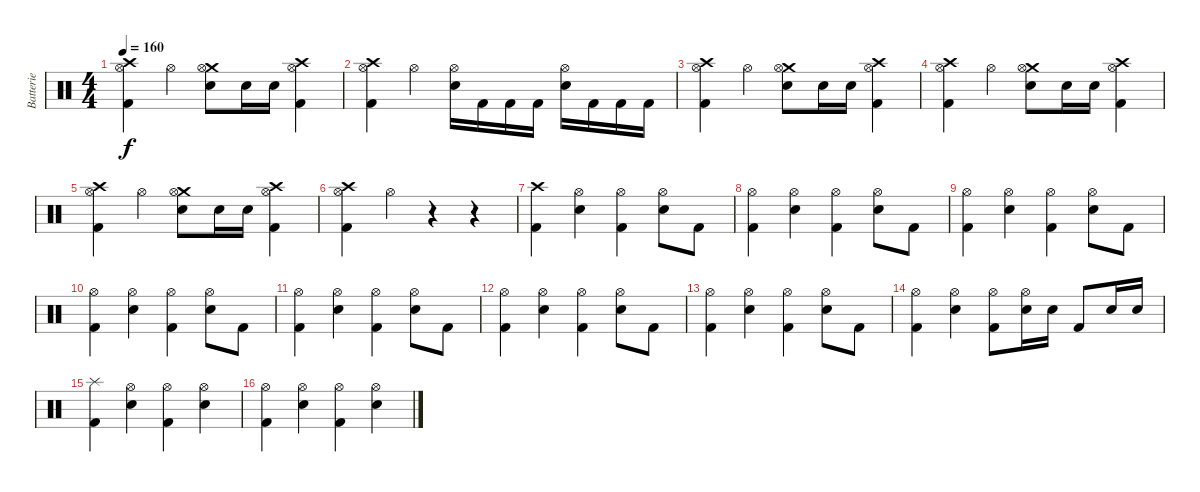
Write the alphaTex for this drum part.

\track ("Batterie" "Batterie") {instrument percussion}
\staff {score}
\articulation defaults
\ts (4 4)
\tempo 160
\clef neutral
\ks c
("Crash high (hit)" "Hi-Hat (open)" "Kick (hit) 2").4{dy f} "Hi-Hat (open)".4 ("Crash medium (hit)" "Hi-Hat (open)" "Electric Snare (hit)").8 "Electric Snare (hit)".16 "Electric Snare (hit)".16 ("Crash high (hit)" "Kick (hit) 2" "Hi-Hat (open)").4 |
("Crash high (hit)" "Hi-Hat (open)" "Kick (hit) 2").4 "Hi-Hat (open)".4 ("Hi-Hat (open)" "Electric Snare (hit)").16 "Kick (hit) 2".16 "Kick (hit) 2".16 "Kick (hit) 2".16 ("Electric Snare (hit)" "Hi-Hat (open)").16 "Kick (hit) 2".16 "Kick (hit) 2".16 "Kick (hit) 2".16 |
("Crash high (hit)" "Hi-Hat (open)" "Kick (hit) 2").4 "Hi-Hat (open)".4 ("Crash medium (hit)" "Hi-Hat (open)" "Electric Snare (hit)").8 "Electric Snare (hit)".16 "Electric Snare (hit)".16 ("Crash high (hit)" "Kick (hit) 2" "Hi-Hat (open)").4 |
("Crash high (hit)" "Hi-Hat (open)" "Kick (hit) 2").4 "Hi-Hat (open)".4 ("Crash medium (hit)" "Hi-Hat (open)" "Electric Snare (hit)").8 "Electric Snare (hit)".16 "Electric Snare (hit)".16 ("Crash high (hit)" "Kick (hit) 2" "Hi-Hat (open)").4 |
("Crash high (hit)" "Hi-Hat (open)" "Kick (hit) 2").4 "Hi-Hat (open)".4 ("Crash medium (hit)" "Hi-Hat (open)" "Electric Snare (hit)").8 "Electric Snare (hit)".16 "Electric Snare (hit)".16 ("Crash high (hit)" "Kick (hit) 2" "Hi-Hat (open)").4 |
("Crash high (hit)" "Hi-Hat (open)" "Kick (hit) 2").4 "Hi-Hat (open)".4 r.4 r.4 |
("Crash high (hit)" "Kick (hit) 2").4 ("Hi-Hat (open)" "Electric Snare (hit)").4 ("Hi-Hat (open)" "Kick (hit) 2").4 ("Hi-Hat (open)" "Electric Snare (hit)").8 "Kick (hit) 2".8 |
("Hi-Hat (open)" "Kick (hit) 2").4 ("Hi-Hat (open)" "Electric Snare (hit)").4 ("Hi-Hat (open)" "Kick (hit) 2").4 ("Hi-Hat (open)" "Electric Snare (hit)").8 "Kick (hit) 2".8 |
("Hi-Hat (open)" "Kick (hit) 2").4 ("Hi-Hat (open)" "Electric Snare (hit)").4 ("Hi-Hat (open)" "Kick (hit) 2").4 ("Hi-Hat (open)" "Electric Snare (hit)").8 "Kick (hit) 2".8 |
("Hi-Hat (open)" "Kick (hit) 2").4 ("Hi-Hat (open)" "Electric Snare (hit)").4 ("Hi-Hat (open)" "Kick (hit) 2").4 ("Hi-Hat (open)" "Electric Snare (hit)").8 "Kick (hit) 2".8 |
("Hi-Hat (open)" "Kick (hit) 2").4 ("Hi-Hat (open)" "Electric Snare (hit)").4 ("Hi-Hat (open)" "Kick (hit) 2").4 ("Hi-Hat (open)" "Electric Snare (hit)").8 "Kick (hit) 2".8 |
("Hi-Hat (open)" "Kick (hit) 2").4 ("Hi-Hat (open)" "Electric Snare (hit)").4 ("Hi-Hat (open)" "Kick (hit) 2").4 ("Hi-Hat (open)" "Electric Snare (hit)").8 "Kick (hit) 2".8 |
("Hi-Hat (open)" "Kick (hit) 2").4 ("Hi-Hat (open)" "Electric Snare (hit)").4 ("Hi-Hat (open)" "Kick (hit) 2").4 ("Hi-Hat (open)" "Electric Snare (hit)").8 "Kick (hit) 2".8 |
("Hi-Hat (open)" "Kick (hit) 2").4 ("Hi-Hat (open)" "Electric Snare (hit)").4 ("Hi-Hat (open)" "Kick (hit) 2").8 ("Hi-Hat (open)" "Electric Snare (hit)").16 "Electric Snare (hit)".16 "Kick (hit) 2".8 "Electric Snare (hit)".16 "Electric Snare (hit)".16 |
("Splash (hit)" "Kick (hit) 2").4 ("Hi-Hat (open)" "Electric Snare (hit)").4 ("Hi-Hat (open)" "Kick (hit) 2").4 ("Hi-Hat (open)" "Electric Snare (hit)").4 |
("Hi-Hat (open)" "Kick (hit) 2").4 ("Hi-Hat (open)" "Electric Snare (hit)").4 ("Hi-Hat (open)" "Kick (hit) 2").4 ("Hi-Hat (open)" "Electric Snare (hit)").4
